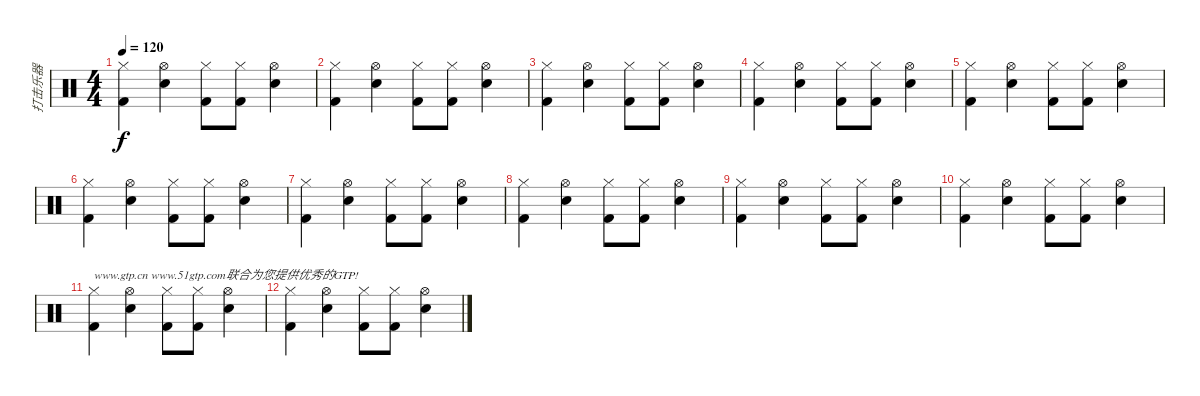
\track ("打击乐器" "打击乐器") {instrument percussion}
\staff {score}
\articulation defaults
\ts (4 4)
\tempo 120
\clef neutral
\ks c
("Hi-Hat (closed)" "Kick (hit) 2").4{dy f} ("Hi-Hat (open)" "Electric Snare (hit)").4 ("Hi-Hat (closed)" "Kick (hit) 2").8 ("Hi-Hat (closed)" "Kick (hit) 2").8 ("Hi-Hat (open)" "Electric Snare (hit)").4 |
("Hi-Hat (closed)" "Kick (hit) 2").4 ("Hi-Hat (open)" "Electric Snare (hit)").4 ("Hi-Hat (closed)" "Kick (hit) 2").8 ("Hi-Hat (closed)" "Kick (hit) 2").8 ("Hi-Hat (open)" "Electric Snare (hit)").4 |
("Hi-Hat (closed)" "Kick (hit) 2").4 ("Hi-Hat (open)" "Electric Snare (hit)").4 ("Hi-Hat (closed)" "Kick (hit) 2").8 ("Hi-Hat (closed)" "Kick (hit) 2").8 ("Hi-Hat (open)" "Electric Snare (hit)").4 |
("Hi-Hat (closed)" "Kick (hit) 2").4 ("Hi-Hat (open)" "Electric Snare (hit)").4 ("Hi-Hat (closed)" "Kick (hit) 2").8 ("Hi-Hat (closed)" "Kick (hit) 2").8 ("Hi-Hat (open)" "Electric Snare (hit)").4 |
("Hi-Hat (closed)" "Kick (hit) 2").4 ("Hi-Hat (open)" "Electric Snare (hit)").4 ("Hi-Hat (closed)" "Kick (hit) 2").8 ("Hi-Hat (closed)" "Kick (hit) 2").8 ("Hi-Hat (open)" "Electric Snare (hit)").4 |
("Hi-Hat (closed)" "Kick (hit) 2").4 ("Hi-Hat (open)" "Electric Snare (hit)").4 ("Hi-Hat (closed)" "Kick (hit) 2").8 ("Hi-Hat (closed)" "Kick (hit) 2").8 ("Hi-Hat (open)" "Electric Snare (hit)").4 |
("Hi-Hat (closed)" "Kick (hit) 2").4 ("Hi-Hat (open)" "Electric Snare (hit)").4 ("Hi-Hat (closed)" "Kick (hit) 2").8 ("Hi-Hat (closed)" "Kick (hit) 2").8 ("Hi-Hat (open)" "Electric Snare (hit)").4 |
("Hi-Hat (closed)" "Kick (hit) 2").4 ("Hi-Hat (open)" "Electric Snare (hit)").4 ("Hi-Hat (closed)" "Kick (hit) 2").8 ("Hi-Hat (closed)" "Kick (hit) 2").8 ("Hi-Hat (open)" "Electric Snare (hit)").4 |
("Hi-Hat (closed)" "Kick (hit) 2").4 ("Hi-Hat (open)" "Electric Snare (hit)").4 ("Hi-Hat (closed)" "Kick (hit) 2").8 ("Hi-Hat (closed)" "Kick (hit) 2").8 ("Hi-Hat (open)" "Electric Snare (hit)").4 |
("Hi-Hat (closed)" "Kick (hit) 2").4 ("Hi-Hat (open)" "Electric Snare (hit)").4 ("Hi-Hat (closed)" "Kick (hit) 2").8 ("Hi-Hat (closed)" "Kick (hit) 2").8 ("Hi-Hat (open)" "Electric Snare (hit)").4 |
("Hi-Hat (closed)" "Kick (hit) 2").4{txt "www.gtp.cn www.51gtp.com联合为您提供优秀的GTP!"} ("Hi-Hat (open)" "Electric Snare (hit)").4 ("Hi-Hat (closed)" "Kick (hit) 2").8 ("Hi-Hat (closed)" "Kick (hit) 2").8 ("Hi-Hat (open)" "Electric Snare (hit)").4 |
("Hi-Hat (closed)" "Kick (hit) 2").4 ("Hi-Hat (open)" "Electric Snare (hit)").4 ("Hi-Hat (closed)" "Kick (hit) 2").8 ("Hi-Hat (closed)" "Kick (hit) 2").8 ("Hi-Hat (open)" "Electric Snare (hit)").4
